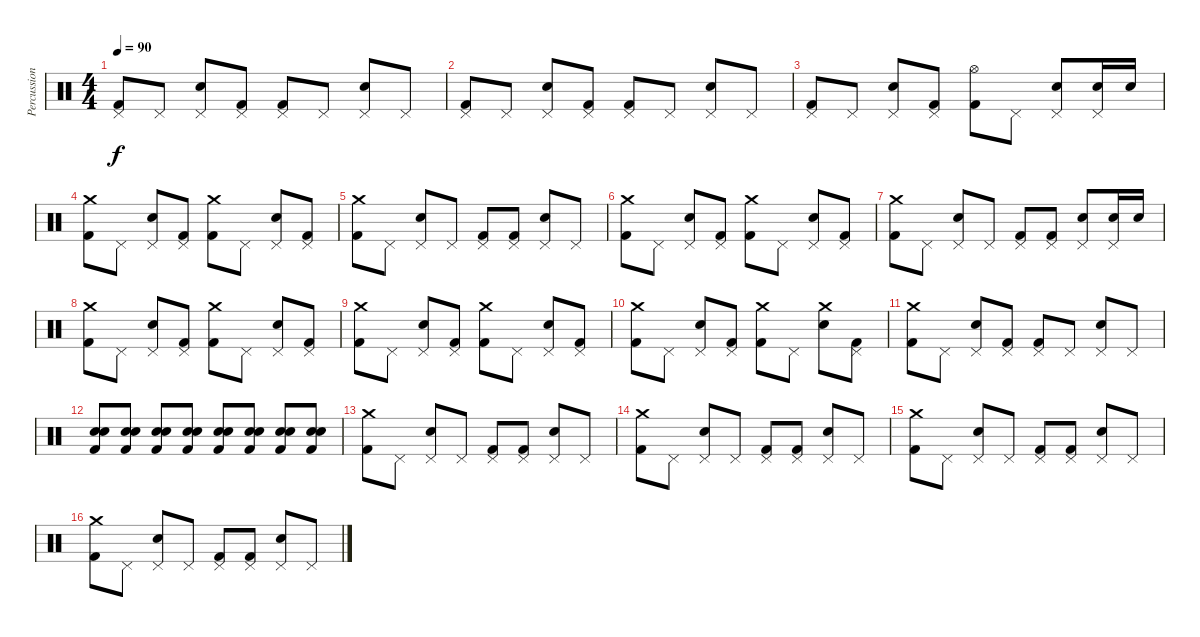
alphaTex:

\track ("Percussion" "Percussion") {instrument percussion}
\staff {score}
\articulation defaults
\ts (4 4)
\tempo 90
\clef neutral
\ks c
("Pedal Hi-Hat (hit)" "Kick (hit) 2").8{dy f} "Pedal Hi-Hat (hit)".8 ("Pedal Hi-Hat (hit)" "Snare (hit) 2").8 ("Pedal Hi-Hat (hit)" "Kick (hit) 2").8 ("Pedal Hi-Hat (hit)" "Kick (hit) 2").8 "Pedal Hi-Hat (hit)".8 ("Pedal Hi-Hat (hit)" "Snare (hit) 2").8 "Pedal Hi-Hat (hit)".8 |
("Pedal Hi-Hat (hit)" "Kick (hit) 2").8 "Pedal Hi-Hat (hit)".8 ("Pedal Hi-Hat (hit)" "Snare (hit) 2").8 ("Pedal Hi-Hat (hit)" "Kick (hit) 2").8 ("Pedal Hi-Hat (hit)" "Kick (hit) 2").8 "Pedal Hi-Hat (hit)".8 ("Pedal Hi-Hat (hit)" "Snare (hit) 2").8 "Pedal Hi-Hat (hit)".8 |
("Pedal Hi-Hat (hit)" "Kick (hit) 2").8 "Pedal Hi-Hat (hit)".8 ("Pedal Hi-Hat (hit)" "Snare (hit) 2").8 ("Pedal Hi-Hat (hit)" "Kick (hit) 2").8 ("Hi-Hat (open)" "Kick (hit) 2").8 "Pedal Hi-Hat (hit)".8 ("Pedal Hi-Hat (hit)" "Snare (hit) 2").8 ("Pedal Hi-Hat (hit)" "Snare (hit) 2").16 "Snare (hit) 2".16 |
("Crash medium (hit)" "Kick (hit) 2").8 "Pedal Hi-Hat (hit)".8 ("Pedal Hi-Hat (hit)" "Snare (hit) 2").8 ("Pedal Hi-Hat (hit)" "Kick (hit) 2").8 ("Crash medium (hit)" "Kick (hit) 2").8 "Pedal Hi-Hat (hit)".8 ("Pedal Hi-Hat (hit)" "Snare (hit) 2").8 ("Pedal Hi-Hat (hit)" "Kick (hit) 2").8 |
("Crash medium (hit)" "Kick (hit) 2").8 "Pedal Hi-Hat (hit)".8 ("Pedal Hi-Hat (hit)" "Snare (hit) 2").8 "Pedal Hi-Hat (hit)".8 ("Pedal Hi-Hat (hit)" "Kick (hit) 2").8 ("Pedal Hi-Hat (hit)" "Kick (hit) 2").8 ("Pedal Hi-Hat (hit)" "Snare (hit) 2").8 "Pedal Hi-Hat (hit)".8 |
("Crash medium (hit)" "Kick (hit) 2").8 "Pedal Hi-Hat (hit)".8 ("Pedal Hi-Hat (hit)" "Snare (hit) 2").8 ("Pedal Hi-Hat (hit)" "Kick (hit) 2").8 ("Crash medium (hit)" "Kick (hit) 2").8 "Pedal Hi-Hat (hit)".8 ("Pedal Hi-Hat (hit)" "Snare (hit) 2").8 ("Pedal Hi-Hat (hit)" "Kick (hit) 2").8 |
("Crash medium (hit)" "Kick (hit) 2").8 "Pedal Hi-Hat (hit)".8 ("Pedal Hi-Hat (hit)" "Snare (hit) 2").8 "Pedal Hi-Hat (hit)".8 ("Pedal Hi-Hat (hit)" "Kick (hit) 2").8 ("Pedal Hi-Hat (hit)" "Kick (hit) 2").8 ("Pedal Hi-Hat (hit)" "Snare (hit) 2").8 ("Pedal Hi-Hat (hit)" "Snare (hit) 2").16 "Snare (hit) 2".16 |
("Crash medium (hit)" "Kick (hit) 2").8 "Pedal Hi-Hat (hit)".8 ("Pedal Hi-Hat (hit)" "Snare (hit) 2").8 ("Pedal Hi-Hat (hit)" "Kick (hit) 2").8 ("Crash medium (hit)" "Kick (hit) 2").8 "Pedal Hi-Hat (hit)".8 ("Pedal Hi-Hat (hit)" "Snare (hit) 2").8 ("Pedal Hi-Hat (hit)" "Kick (hit) 2").8 |
("Crash medium (hit)" "Kick (hit) 2").8 "Pedal Hi-Hat (hit)".8 ("Pedal Hi-Hat (hit)" "Snare (hit) 2").8 ("Pedal Hi-Hat (hit)" "Kick (hit) 2").8 ("Crash medium (hit)" "Kick (hit) 2").8 "Pedal Hi-Hat (hit)".8 ("Pedal Hi-Hat (hit)" "Snare (hit) 2").8 ("Pedal Hi-Hat (hit)" "Kick (hit) 2").8 |
("Crash medium (hit)" "Kick (hit) 2").8 "Pedal Hi-Hat (hit)".8 ("Pedal Hi-Hat (hit)" "Snare (hit) 2").8 ("Pedal Hi-Hat (hit)" "Kick (hit) 2").8 ("Crash medium (hit)" "Kick (hit) 2").8 "Pedal Hi-Hat (hit)".8 ("Crash medium (hit)" "Snare (hit) 2").8 ("Pedal Hi-Hat (hit)" "Kick (hit) 2").8 |
("Crash medium (hit)" "Kick (hit) 2").8 "Pedal Hi-Hat (hit)".8 ("Pedal Hi-Hat (hit)" "Snare (hit) 2").8 ("Pedal Hi-Hat (hit)" "Kick (hit) 2").8 ("Pedal Hi-Hat (hit)" "Kick (hit) 2").8 "Pedal Hi-Hat (hit)".8 ("Pedal Hi-Hat (hit)" "Snare (hit) 2").8 "Pedal Hi-Hat (hit)".8 |
("Snare (hit) 2" "Snare (hit) 2" "Kick (hit) 2").8 ("Snare (hit) 2" "Snare (hit) 2" "Kick (hit) 2").8 ("Snare (hit) 2" "Snare (hit) 2" "Kick (hit) 2").8 ("Snare (hit) 2" "Snare (hit) 2" "Kick (hit) 2").8 ("Snare (hit) 2" "Snare (hit) 2" "Kick (hit) 2").8 ("Snare (hit) 2" "Snare (hit) 2" "Kick (hit) 2").8 ("Snare (hit) 2" "Snare (hit) 2" "Kick (hit) 2").8 ("Snare (hit) 2" "Snare (hit) 2" "Kick (hit) 2").8 |
("Crash medium (hit)" "Kick (hit) 2").8 "Pedal Hi-Hat (hit)".8 ("Pedal Hi-Hat (hit)" "Snare (hit) 2").8 "Pedal Hi-Hat (hit)".8 ("Pedal Hi-Hat (hit)" "Kick (hit) 2").8 ("Pedal Hi-Hat (hit)" "Kick (hit) 2").8 ("Pedal Hi-Hat (hit)" "Snare (hit) 2").8 "Pedal Hi-Hat (hit)".8 |
("Crash medium (hit)" "Kick (hit) 2").8 "Pedal Hi-Hat (hit)".8 ("Pedal Hi-Hat (hit)" "Snare (hit) 2").8 "Pedal Hi-Hat (hit)".8 ("Pedal Hi-Hat (hit)" "Kick (hit) 2").8 ("Pedal Hi-Hat (hit)" "Kick (hit) 2").8 ("Pedal Hi-Hat (hit)" "Snare (hit) 2").8 "Pedal Hi-Hat (hit)".8 |
("Crash medium (hit)" "Kick (hit) 2").8 "Pedal Hi-Hat (hit)".8 ("Pedal Hi-Hat (hit)" "Snare (hit) 2").8 "Pedal Hi-Hat (hit)".8 ("Pedal Hi-Hat (hit)" "Kick (hit) 2").8 ("Pedal Hi-Hat (hit)" "Kick (hit) 2").8 ("Pedal Hi-Hat (hit)" "Snare (hit) 2").8 "Pedal Hi-Hat (hit)".8 |
("Crash medium (hit)" "Kick (hit) 2").8 "Pedal Hi-Hat (hit)".8 ("Pedal Hi-Hat (hit)" "Snare (hit) 2").8 "Pedal Hi-Hat (hit)".8 ("Pedal Hi-Hat (hit)" "Kick (hit) 2").8 ("Pedal Hi-Hat (hit)" "Kick (hit) 2").8 ("Pedal Hi-Hat (hit)" "Snare (hit) 2").8 "Pedal Hi-Hat (hit)".8
